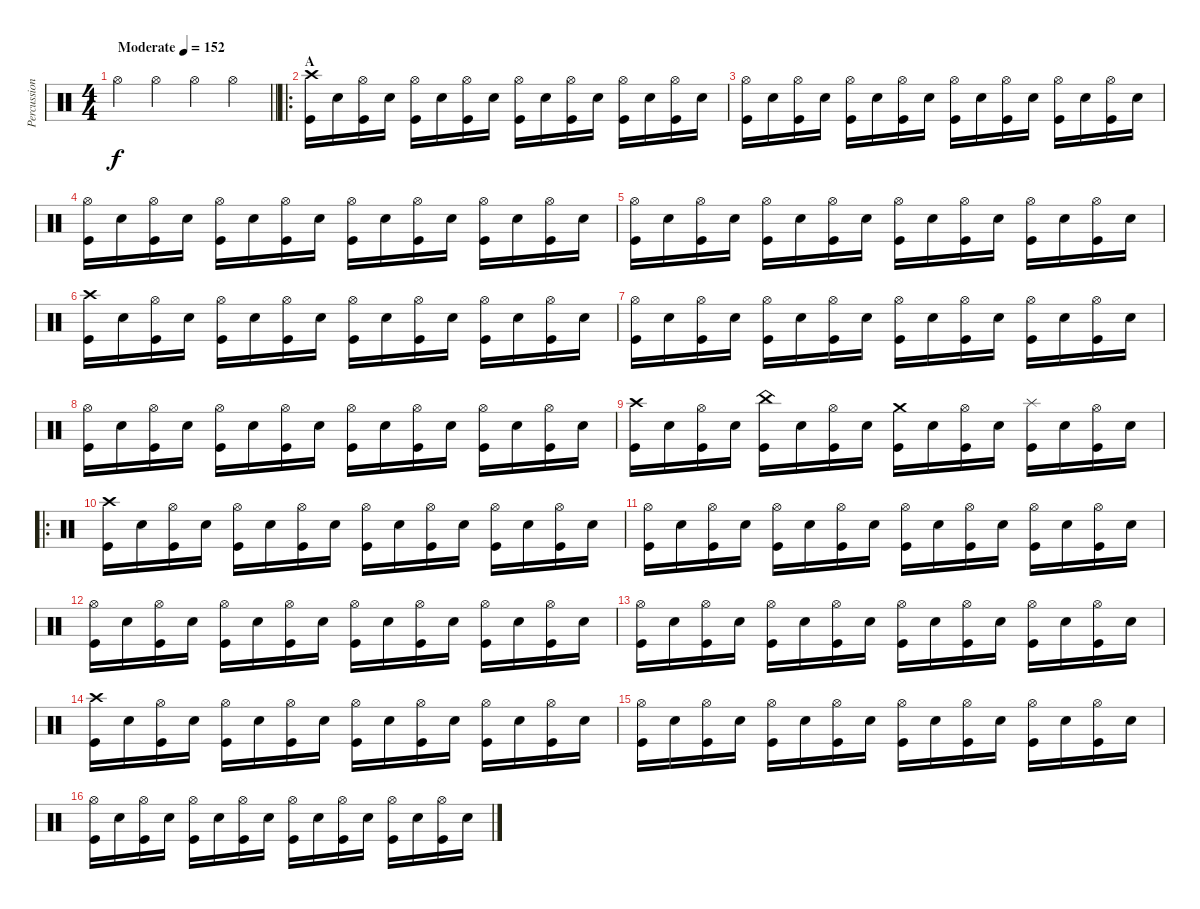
\track ("Percussion" "Percussion") {instrument percussion}
\staff {score}
\articulation defaults
\ts (4 4)
\tempo (152 "Moderate")
\clef neutral
\barLineRight lightlight
\ks c "Hi-Hat (open)".4{dy f} "Hi-Hat (open)".4 "Hi-Hat (open)".4 "Hi-Hat (open)".4
|
\ro
\section ("" "A")
("Crash high (hit)" "Kick (hit)").16 "Snare (hit) 2".16 ("Hi-Hat (open)" "Kick (hit)").16 "Snare (hit) 2".16 ("Hi-Hat (open)" "Kick (hit)").16 "Snare (hit) 2".16 ("Hi-Hat (open)" "Kick (hit)").16 "Snare (hit) 2".16 ("Hi-Hat (open)" "Kick (hit)").16 "Snare (hit) 2".16 ("Hi-Hat (open)" "Kick (hit)").16 "Snare (hit) 2".16 ("Hi-Hat (open)" "Kick (hit)").16 "Snare (hit) 2".16 ("Hi-Hat (open)" "Kick (hit)").16 "Snare (hit) 2".16 |
("Hi-Hat (open)" "Kick (hit)").16 "Snare (hit) 2".16 ("Hi-Hat (open)" "Kick (hit)").16 "Snare (hit) 2".16 ("Hi-Hat (open)" "Kick (hit)").16 "Snare (hit) 2".16 ("Hi-Hat (open)" "Kick (hit)").16 "Snare (hit) 2".16 ("Hi-Hat (open)" "Kick (hit)").16 "Snare (hit) 2".16 ("Hi-Hat (open)" "Kick (hit)").16 "Snare (hit) 2".16 ("Hi-Hat (open)" "Kick (hit)").16 "Snare (hit) 2".16 ("Hi-Hat (open)" "Kick (hit)").16 "Snare (hit) 2".16 |
("Hi-Hat (open)" "Kick (hit)").16 "Snare (hit) 2".16 ("Hi-Hat (open)" "Kick (hit)").16 "Snare (hit) 2".16 ("Hi-Hat (open)" "Kick (hit)").16 "Snare (hit) 2".16 ("Hi-Hat (open)" "Kick (hit)").16 "Snare (hit) 2".16 ("Hi-Hat (open)" "Kick (hit)").16 "Snare (hit) 2".16 ("Hi-Hat (open)" "Kick (hit)").16 "Snare (hit) 2".16 ("Hi-Hat (open)" "Kick (hit)").16 "Snare (hit) 2".16 ("Hi-Hat (open)" "Kick (hit)").16 "Snare (hit) 2".16 |
("Hi-Hat (open)" "Kick (hit)").16 "Snare (hit) 2".16 ("Hi-Hat (open)" "Kick (hit)").16 "Snare (hit) 2".16 ("Hi-Hat (open)" "Kick (hit)").16 "Snare (hit) 2".16 ("Hi-Hat (open)" "Kick (hit)").16 "Snare (hit) 2".16 ("Hi-Hat (open)" "Kick (hit)").16 "Snare (hit) 2".16 ("Hi-Hat (open)" "Kick (hit)").16 "Snare (hit) 2".16 ("Hi-Hat (open)" "Kick (hit)").16 "Snare (hit) 2".16 ("Hi-Hat (open)" "Kick (hit)").16 "Snare (hit) 2".16 |
("Crash high (hit)" "Kick (hit)").16 "Snare (hit) 2".16 ("Hi-Hat (open)" "Kick (hit)").16 "Snare (hit) 2".16 ("Hi-Hat (open)" "Kick (hit)").16 "Snare (hit) 2".16 ("Hi-Hat (open)" "Kick (hit)").16 "Snare (hit) 2".16 ("Hi-Hat (open)" "Kick (hit)").16 "Snare (hit) 2".16 ("Hi-Hat (open)" "Kick (hit)").16 "Snare (hit) 2".16 ("Hi-Hat (open)" "Kick (hit)").16 "Snare (hit) 2".16 ("Hi-Hat (open)" "Kick (hit)").16 "Snare (hit) 2".16 |
("Hi-Hat (open)" "Kick (hit)").16 "Snare (hit) 2".16 ("Hi-Hat (open)" "Kick (hit)").16 "Snare (hit) 2".16 ("Hi-Hat (open)" "Kick (hit)").16 "Snare (hit) 2".16 ("Hi-Hat (open)" "Kick (hit)").16 "Snare (hit) 2".16 ("Hi-Hat (open)" "Kick (hit)").16 "Snare (hit) 2".16 ("Hi-Hat (open)" "Kick (hit)").16 "Snare (hit) 2".16 ("Hi-Hat (open)" "Kick (hit)").16 "Snare (hit) 2".16 ("Hi-Hat (open)" "Kick (hit)").16 "Snare (hit) 2".16 |
("Hi-Hat (open)" "Kick (hit)").16 "Snare (hit) 2".16 ("Hi-Hat (open)" "Kick (hit)").16 "Snare (hit) 2".16 ("Hi-Hat (open)" "Kick (hit)").16 "Snare (hit) 2".16 ("Hi-Hat (open)" "Kick (hit)").16 "Snare (hit) 2".16 ("Hi-Hat (open)" "Kick (hit)").16 "Snare (hit) 2".16 ("Hi-Hat (open)" "Kick (hit)").16 "Snare (hit) 2".16 ("Hi-Hat (open)" "Kick (hit)").16 "Snare (hit) 2".16 ("Hi-Hat (open)" "Kick (hit)").16 "Snare (hit) 2".16 |
("Crash high (hit)" "Kick (hit)").16 "Snare (hit) 2".16 ("Hi-Hat (open)" "Kick (hit)").16 "Snare (hit) 2".16 ("China (hit)" "Kick (hit)").16 "Snare (hit) 2".16 ("Hi-Hat (open)" "Kick (hit)").16 "Snare (hit) 2".16 ("Crash medium (hit)" "Kick (hit)").16 "Snare (hit) 2".16 ("Hi-Hat (open)" "Kick (hit)").16 "Snare (hit) 2".16 ("Splash (hit)" "Kick (hit)").16 "Snare (hit) 2".16 ("Hi-Hat (open)" "Kick (hit)").16 "Snare (hit) 2".16 |
\ro
("Crash high (hit)" "Kick (hit)").16 "Snare (hit) 2".16 ("Hi-Hat (open)" "Kick (hit)").16 "Snare (hit) 2".16 ("Hi-Hat (open)" "Kick (hit)").16 "Snare (hit) 2".16 ("Hi-Hat (open)" "Kick (hit)").16 "Snare (hit) 2".16 ("Hi-Hat (open)" "Kick (hit)").16 "Snare (hit) 2".16 ("Hi-Hat (open)" "Kick (hit)").16 "Snare (hit) 2".16 ("Hi-Hat (open)" "Kick (hit)").16 "Snare (hit) 2".16 ("Hi-Hat (open)" "Kick (hit)").16 "Snare (hit) 2".16 |
("Hi-Hat (open)" "Kick (hit)").16 "Snare (hit) 2".16 ("Hi-Hat (open)" "Kick (hit)").16 "Snare (hit) 2".16 ("Hi-Hat (open)" "Kick (hit)").16 "Snare (hit) 2".16 ("Hi-Hat (open)" "Kick (hit)").16 "Snare (hit) 2".16 ("Hi-Hat (open)" "Kick (hit)").16 "Snare (hit) 2".16 ("Hi-Hat (open)" "Kick (hit)").16 "Snare (hit) 2".16 ("Hi-Hat (open)" "Kick (hit)").16 "Snare (hit) 2".16 ("Hi-Hat (open)" "Kick (hit)").16 "Snare (hit) 2".16 |
("Hi-Hat (open)" "Kick (hit)").16 "Snare (hit) 2".16 ("Hi-Hat (open)" "Kick (hit)").16 "Snare (hit) 2".16 ("Hi-Hat (open)" "Kick (hit)").16 "Snare (hit) 2".16 ("Hi-Hat (open)" "Kick (hit)").16 "Snare (hit) 2".16 ("Hi-Hat (open)" "Kick (hit)").16 "Snare (hit) 2".16 ("Hi-Hat (open)" "Kick (hit)").16 "Snare (hit) 2".16 ("Hi-Hat (open)" "Kick (hit)").16 "Snare (hit) 2".16 ("Hi-Hat (open)" "Kick (hit)").16 "Snare (hit) 2".16 |
("Hi-Hat (open)" "Kick (hit)").16 "Snare (hit) 2".16 ("Hi-Hat (open)" "Kick (hit)").16 "Snare (hit) 2".16 ("Hi-Hat (open)" "Kick (hit)").16 "Snare (hit) 2".16 ("Hi-Hat (open)" "Kick (hit)").16 "Snare (hit) 2".16 ("Hi-Hat (open)" "Kick (hit)").16 "Snare (hit) 2".16 ("Hi-Hat (open)" "Kick (hit)").16 "Snare (hit) 2".16 ("Hi-Hat (open)" "Kick (hit)").16 "Snare (hit) 2".16 ("Hi-Hat (open)" "Kick (hit)").16 "Snare (hit) 2".16 |
("Crash high (hit)" "Kick (hit)").16 "Snare (hit) 2".16 ("Hi-Hat (open)" "Kick (hit)").16 "Snare (hit) 2".16 ("Hi-Hat (open)" "Kick (hit)").16 "Snare (hit) 2".16 ("Hi-Hat (open)" "Kick (hit)").16 "Snare (hit) 2".16 ("Hi-Hat (open)" "Kick (hit)").16 "Snare (hit) 2".16 ("Hi-Hat (open)" "Kick (hit)").16 "Snare (hit) 2".16 ("Hi-Hat (open)" "Kick (hit)").16 "Snare (hit) 2".16 ("Hi-Hat (open)" "Kick (hit)").16 "Snare (hit) 2".16 |
("Hi-Hat (open)" "Kick (hit)").16 "Snare (hit) 2".16 ("Hi-Hat (open)" "Kick (hit)").16 "Snare (hit) 2".16 ("Hi-Hat (open)" "Kick (hit)").16 "Snare (hit) 2".16 ("Hi-Hat (open)" "Kick (hit)").16 "Snare (hit) 2".16 ("Hi-Hat (open)" "Kick (hit)").16 "Snare (hit) 2".16 ("Hi-Hat (open)" "Kick (hit)").16 "Snare (hit) 2".16 ("Hi-Hat (open)" "Kick (hit)").16 "Snare (hit) 2".16 ("Hi-Hat (open)" "Kick (hit)").16 "Snare (hit) 2".16 |
("Hi-Hat (open)" "Kick (hit)").16 "Snare (hit) 2".16 ("Hi-Hat (open)" "Kick (hit)").16 "Snare (hit) 2".16 ("Hi-Hat (open)" "Kick (hit)").16 "Snare (hit) 2".16 ("Hi-Hat (open)" "Kick (hit)").16 "Snare (hit) 2".16 ("Hi-Hat (open)" "Kick (hit)").16 "Snare (hit) 2".16 ("Hi-Hat (open)" "Kick (hit)").16 "Snare (hit) 2".16 ("Hi-Hat (open)" "Kick (hit)").16 "Snare (hit) 2".16 ("Hi-Hat (open)" "Kick (hit)").16 "Snare (hit) 2".16
